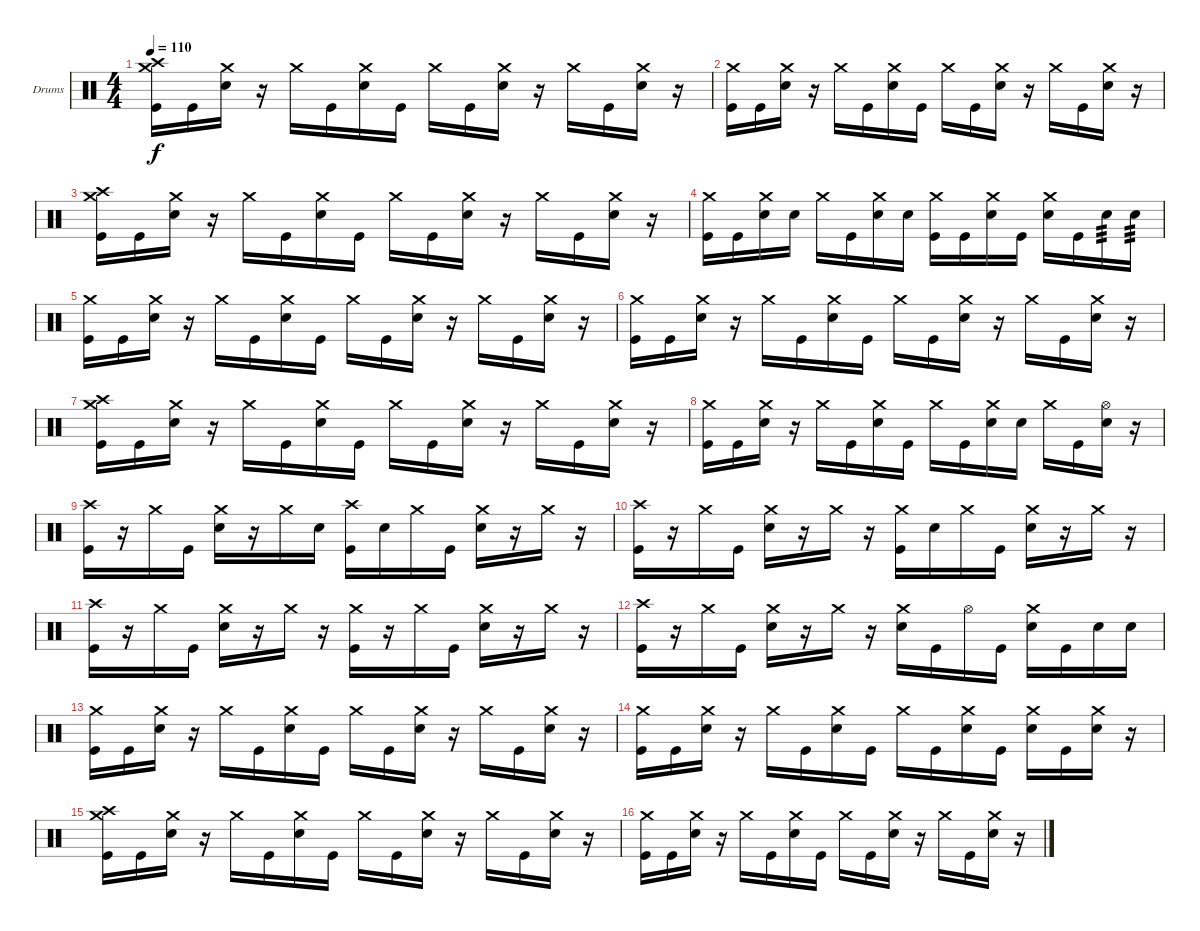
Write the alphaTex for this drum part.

\bracketExtendMode groupsimilarinstruments
\firstSystemTrackNameOrientation horizontal
\otherSystemsTrackNameOrientation horizontal
\track ("Drumkit" "Drums") {instrument percussion}
\staff {score}
\articulation defaults
\ts (4 4)
\tempo 110
\clef neutral
\ks c
("Crash high (hit)" "Crash medium (hit)" "Kick (hit)").16{dy f} "Kick (hit)".16 ("Crash medium (hit)" "Snare (hit) 2").16 r.16 "Crash medium (hit)".16 "Kick (hit)".16 ("Crash medium (hit)" "Snare (hit) 2").16 "Kick (hit)".16 "Crash medium (hit)".16 "Kick (hit)".16 ("Crash medium (hit)" "Snare (hit) 2").16 r.16 "Crash medium (hit)".16 "Kick (hit)".16 ("Crash medium (hit)" "Snare (hit) 2").16 r.16 |
("Crash medium (hit)" "Kick (hit)").16 "Kick (hit)".16 ("Crash medium (hit)" "Snare (hit) 2").16 r.16 "Crash medium (hit)".16 "Kick (hit)".16 ("Crash medium (hit)" "Snare (hit) 2").16 "Kick (hit)".16 "Crash medium (hit)".16 "Kick (hit)".16 ("Crash medium (hit)" "Snare (hit) 2").16 r.16 "Crash medium (hit)".16 "Kick (hit)".16 ("Crash medium (hit)" "Snare (hit) 2").16 r.16 |
("Crash high (hit)" "Crash medium (hit)" "Kick (hit)").16 "Kick (hit)".16 ("Crash medium (hit)" "Snare (hit) 2").16 r.16 "Crash medium (hit)".16 "Kick (hit)".16 ("Crash medium (hit)" "Snare (hit) 2").16 "Kick (hit)".16 "Crash medium (hit)".16 "Kick (hit)".16 ("Crash medium (hit)" "Snare (hit) 2").16 r.16 "Crash medium (hit)".16 "Kick (hit)".16 ("Crash medium (hit)" "Snare (hit) 2").16 r.16 |
("Crash medium (hit)" "Kick (hit)").16 "Kick (hit)".16 ("Crash medium (hit)" "Snare (hit) 2").16 "Snare (hit) 2".16 "Crash medium (hit)".16 "Kick (hit)".16 ("Crash medium (hit)" "Snare (hit) 2").16 "Snare (hit) 2".16 ("Crash medium (hit)" "Kick (hit)").16 "Kick (hit)".16 ("Crash medium (hit)" "Snare (hit) 2").16 "Kick (hit)".16 ("Crash medium (hit)" "Snare (hit) 2").16 "Kick (hit)".16 "Snare (hit) 2".16{tp 3} "Snare (hit) 2".16{tp 3} |
("Crash medium (hit)" "Kick (hit)").16 "Kick (hit)".16 ("Crash medium (hit)" "Snare (hit) 2").16 r.16 "Crash medium (hit)".16 "Kick (hit)".16 ("Crash medium (hit)" "Snare (hit) 2").16 "Kick (hit)".16 "Crash medium (hit)".16 "Kick (hit)".16 ("Crash medium (hit)" "Snare (hit) 2").16 r.16 "Crash medium (hit)".16 "Kick (hit)".16 ("Crash medium (hit)" "Snare (hit) 2").16 r.16 |
("Crash medium (hit)" "Kick (hit)").16 "Kick (hit)".16 ("Crash medium (hit)" "Snare (hit) 2").16 r.16 "Crash medium (hit)".16 "Kick (hit)".16 ("Crash medium (hit)" "Snare (hit) 2").16 "Kick (hit)".16 "Crash medium (hit)".16 "Kick (hit)".16 ("Crash medium (hit)" "Snare (hit) 2").16 r.16 "Crash medium (hit)".16 "Kick (hit)".16 ("Crash medium (hit)" "Snare (hit) 2").16 r.16 |
("Crash high (hit)" "Crash medium (hit)" "Kick (hit)").16 "Kick (hit)".16 ("Crash medium (hit)" "Snare (hit) 2").16 r.16 "Crash medium (hit)".16 "Kick (hit)".16 ("Crash medium (hit)" "Snare (hit) 2").16 "Kick (hit)".16 "Crash medium (hit)".16 "Kick (hit)".16 ("Crash medium (hit)" "Snare (hit) 2").16 r.16 "Crash medium (hit)".16 "Kick (hit)".16 ("Crash medium (hit)" "Snare (hit) 2").16 r.16 |
("Crash medium (hit)" "Kick (hit)").16 "Kick (hit)".16 ("Crash medium (hit)" "Snare (hit) 2").16 r.16 "Crash medium (hit)".16 "Kick (hit)".16 ("Crash medium (hit)" "Snare (hit) 2").16 "Kick (hit)".16 "Crash medium (hit)".16 "Kick (hit)".16 ("Crash medium (hit)" "Snare (hit) 2").16 "Snare (hit) 2".16 "Crash medium (hit)".16 "Kick (hit)".16 ("Hi-Hat (open)" "Snare (hit) 2").16 r.16 |
("Crash high (hit)" "Kick (hit)").16 r.16 "Crash medium (hit)".16 "Kick (hit)".16 ("Crash medium (hit)" "Snare (hit) 2").16 r.16 "Crash medium (hit)".16 "Snare (hit) 2".16 ("Crash high (hit)" "Kick (hit)").16 "Snare (hit) 2".16 "Crash medium (hit)".16 "Kick (hit)".16 ("Crash medium (hit)" "Snare (hit) 2").16 r.16 "Crash medium (hit)".16 r.16 |
("Crash high (hit)" "Kick (hit)").16 r.16 "Crash medium (hit)".16 "Kick (hit)".16 ("Crash medium (hit)" "Snare (hit) 2").16 r.16 "Crash medium (hit)".16 r.16 ("Crash medium (hit)" "Kick (hit)").16 "Snare (hit) 2".16 "Crash medium (hit)".16 "Kick (hit)".16 ("Crash medium (hit)" "Snare (hit) 2").16 r.16 "Crash medium (hit)".16 r.16 |
("Crash high (hit)" "Kick (hit)").16 r.16 "Crash medium (hit)".16 "Kick (hit)".16 ("Crash medium (hit)" "Snare (hit) 2").16 r.16 "Crash medium (hit)".16 r.16 ("Crash medium (hit)" "Kick (hit)").16 r.16 "Crash medium (hit)".16 "Kick (hit)".16 ("Crash medium (hit)" "Snare (hit) 2").16 r.16 "Crash medium (hit)".16 r.16 |
("Crash high (hit)" "Kick (hit)").16 r.16 "Crash medium (hit)".16 "Kick (hit)".16 ("Crash medium (hit)" "Snare (hit) 2").16 r.16 "Crash medium (hit)".16 r.16 ("Crash medium (hit)" "Snare (hit) 2").16 "Kick (hit)".16 "Hi-Hat (open)".16 "Kick (hit)".16 ("Crash medium (hit)" "Snare (hit) 2").16 "Kick (hit)".16 "Snare (hit) 2".16 "Snare (hit) 2".16 |
("Crash medium (hit)" "Kick (hit)").16 "Kick (hit)".16 ("Crash medium (hit)" "Snare (hit) 2").16 r.16 "Crash medium (hit)".16 "Kick (hit)".16 ("Crash medium (hit)" "Snare (hit) 2").16 "Kick (hit)".16 "Crash medium (hit)".16 "Kick (hit)".16 ("Crash medium (hit)" "Snare (hit) 2").16 r.16 "Crash medium (hit)".16 "Kick (hit)".16 ("Crash medium (hit)" "Snare (hit) 2").16 r.16 |
("Crash medium (hit)" "Kick (hit)").16 "Kick (hit)".16 ("Crash medium (hit)" "Snare (hit) 2").16 r.16 "Crash medium (hit)".16 "Kick (hit)".16 ("Crash medium (hit)" "Snare (hit) 2").16 "Kick (hit)".16 "Crash medium (hit)".16 "Kick (hit)".16 ("Crash medium (hit)" "Snare (hit) 2").16 "Kick (hit)".16 ("Crash medium (hit)" "Snare (hit) 2").16 "Kick (hit)".16 ("Crash medium (hit)" "Snare (hit) 2").16 r.16 |
("Crash high (hit)" "Crash medium (hit)" "Kick (hit)").16 "Kick (hit)".16 ("Crash medium (hit)" "Snare (hit) 2").16 r.16 "Crash medium (hit)".16 "Kick (hit)".16 ("Crash medium (hit)" "Snare (hit) 2").16 "Kick (hit)".16 "Crash medium (hit)".16 "Kick (hit)".16 ("Crash medium (hit)" "Snare (hit) 2").16 r.16 "Crash medium (hit)".16 "Kick (hit)".16 ("Crash medium (hit)" "Snare (hit) 2").16 r.16 |
("Crash medium (hit)" "Kick (hit)").16 "Kick (hit)".16 ("Crash medium (hit)" "Snare (hit) 2").16 r.16 "Crash medium (hit)".16 "Kick (hit)".16 ("Crash medium (hit)" "Snare (hit) 2").16 "Kick (hit)".16 "Crash medium (hit)".16 "Kick (hit)".16 ("Crash medium (hit)" "Snare (hit) 2").16 r.16 "Crash medium (hit)".16 "Kick (hit)".16 ("Crash medium (hit)" "Snare (hit) 2").16 r.16
